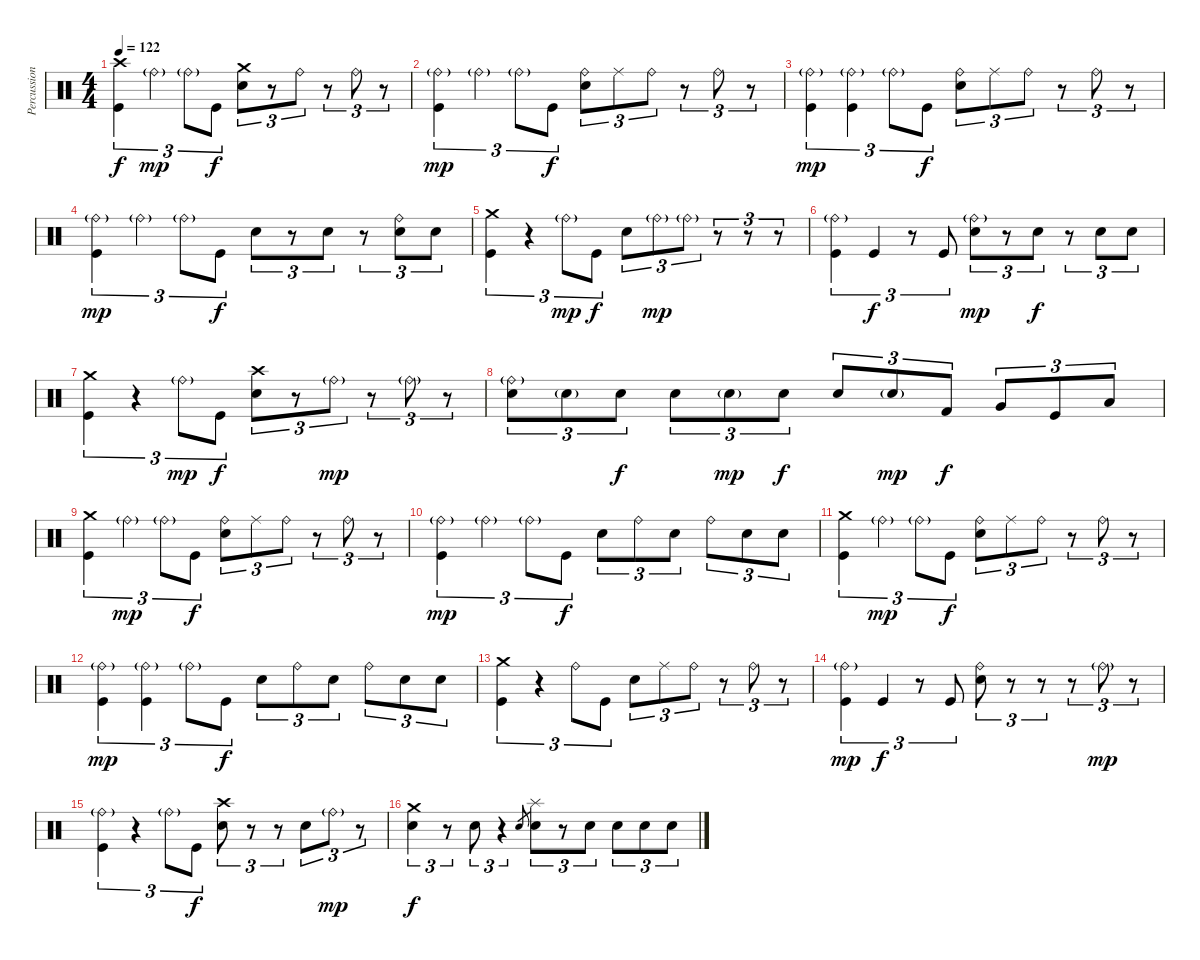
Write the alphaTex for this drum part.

\track ("Percussions" "Percussion") {instrument percussion}
\staff {score}
\articulation defaults
\ts (4 4)
\tempo 122
\clef neutral
\ks c
("Crash high (hit)" "Kick (hit)").4{tu (3 2) dy f} "Ride (bell)"{g}.4{tu (3 2) dy mp} "Ride (bell)"{g}.8{tu (3 2)} "Kick (hit)".8{tu (3 2) dy f} ("Crash medium (hit)" "Electric Snare (hit)").8{tu (3 2)} r.8{tu (3 2)} "Ride (bell)".8{tu (3 2)} r.8{tu (3 2)} "Ride (bell)".8{tu (3 2)} r.8{tu (3 2)} |
("Ride (bell)"{g} "Kick (hit)").4{tu (3 2) dy mp} "Ride (bell)"{g}.4{tu (3 2)} "Ride (bell)"{g}.8{tu (3 2)} "Kick (hit)".8{tu (3 2) dy f} ("Ride (bell)" "Electric Snare (hit)").8{tu (3 2)} "Ride (middle)".8{tu (3 2)} "Ride (bell)".8{tu (3 2)} r.8{tu (3 2)} "Ride (bell)".8{tu (3 2)} r.8{tu (3 2)} |
("Ride (bell)"{g} "Kick (hit)").4{tu (3 2) dy mp} ("Ride (bell)"{g} "Kick (hit)").4{tu (3 2)} "Ride (bell)"{g}.8{tu (3 2)} "Kick (hit)".8{tu (3 2) dy f} ("Ride (bell)" "Electric Snare (hit)").8{tu (3 2)} "Ride (middle)".8{tu (3 2)} "Ride (bell)".8{tu (3 2)} r.8{tu (3 2)} "Ride (bell)".8{tu (3 2)} r.8{tu (3 2)} |
("Ride (bell)"{g} "Kick (hit)").4{tu (3 2) dy mp} "Ride (bell)"{g}.4{tu (3 2)} "Ride (bell)"{g}.8{tu (3 2)} "Kick (hit)".8{tu (3 2) dy f} "Electric Snare (hit)".8{tu (3 2)} r.8{tu (3 2)} "Electric Snare (hit)".8{tu (3 2)} r.8{tu (3 2)} ("Ride (bell)" "Electric Snare (hit)").8{tu (3 2)} "Electric Snare (hit)".8{tu (3 2)} |
("Crash medium (hit)" "Kick (hit)").4{tu (3 2)} r.4{tu (3 2)} "Ride (bell)"{g}.8{tu (3 2) dy mp} "Kick (hit)".8{tu (3 2) dy f} "Electric Snare (hit)".8{tu (3 2)} "Ride (bell)"{g}.8{tu (3 2) dy mp} "Ride (bell)"{g}.8{tu (3 2)} r.8{tu (3 2)} r.8{tu (3 2)} r.8{tu (3 2)} |
("Ride (bell)"{g} "Kick (hit)").4{tu (3 2)} "Kick (hit)".4{tu (3 2) dy f} r.8{tu (3 2)} "Kick (hit)".8{tu (3 2)} ("Ride (bell)"{g} "Electric Snare (hit)").8{tu (3 2) dy mp} r.8{tu (3 2)} "Electric Snare (hit)".8{tu (3 2) dy f} r.8{tu (3 2)} "Electric Snare (hit)".8{tu (3 2)} "Electric Snare (hit)".8{tu (3 2)} |
("Crash medium (hit)" "Kick (hit)").4{tu (3 2)} r.4{tu (3 2)} "Ride (bell)"{g}.8{tu (3 2) dy mp} "Kick (hit)".8{tu (3 2) dy f} ("Crash high (hit)" "Electric Snare (hit)").8{tu (3 2)} r.8{tu (3 2)} "Ride (bell)"{g}.8{tu (3 2) dy mp} r.8{tu (3 2)} "Ride (bell)"{g}.8{tu (3 2)} r.8{tu (3 2)} |
("Ride (bell)"{g} "Electric Snare (hit)").8{tu (3 2)} "Electric Snare (hit)"{g}.8{tu (3 2)} "Electric Snare (hit)".8{tu (3 2) dy f} "Electric Snare (hit)".8{tu (3 2)} "Electric Snare (hit)"{g}.8{tu (3 2) dy mp} "Electric Snare (hit)".8{tu (3 2) dy f} "Electric Snare (hit)".8{tu (3 2)} "Electric Snare (hit)"{g}.8{tu (3 2) dy mp} "Kick (hit) 2".8{tu (3 2) dy f} "Very Low Tom (hit)".8{tu (3 2)} "Kick (hit)".8{tu (3 2)} "Low Tom (hit)".8{tu (3 2)} |
("Crash medium (hit)" "Kick (hit)").4{tu (3 2)} "Ride (bell)"{g}.4{tu (3 2) dy mp} "Ride (bell)"{g}.8{tu (3 2)} "Kick (hit)".8{tu (3 2) dy f} ("Ride (bell)" "Electric Snare (hit)").8{tu (3 2)} "Ride (middle)".8{tu (3 2)} "Ride (bell)".8{tu (3 2)} r.8{tu (3 2)} "Ride (bell)".8{tu (3 2)} r.8{tu (3 2)} |
("Ride (bell)"{g} "Kick (hit)").4{tu (3 2) dy mp} "Ride (bell)"{g}.4{tu (3 2)} "Ride (bell)"{g}.8{tu (3 2)} "Kick (hit)".8{tu (3 2) dy f} "Electric Snare (hit)".8{tu (3 2)} "Ride (bell)".8{tu (3 2)} "Electric Snare (hit)".8{tu (3 2)} "Ride (bell)".8{tu (3 2)} "Electric Snare (hit)".8{tu (3 2)} "Electric Snare (hit)".8{tu (3 2)} |
("Crash medium (hit)" "Kick (hit)").4{tu (3 2)} "Ride (bell)"{g}.4{tu (3 2) dy mp} "Ride (bell)"{g}.8{tu (3 2)} "Kick (hit)".8{tu (3 2) dy f} ("Ride (bell)" "Electric Snare (hit)").8{tu (3 2)} "Ride (middle)".8{tu (3 2)} "Ride (bell)".8{tu (3 2)} r.8{tu (3 2)} "Ride (bell)".8{tu (3 2)} r.8{tu (3 2)} |
("Ride (bell)"{g} "Kick (hit)").4{tu (3 2) dy mp} ("Ride (bell)"{g} "Kick (hit)").4{tu (3 2)} "Ride (bell)"{g}.8{tu (3 2)} "Kick (hit)".8{tu (3 2) dy f} "Electric Snare (hit)".8{tu (3 2)} "Ride (bell)".8{tu (3 2)} "Electric Snare (hit)".8{tu (3 2)} "Ride (bell)".8{tu (3 2)} "Electric Snare (hit)".8{tu (3 2)} "Electric Snare (hit)".8{tu (3 2)} |
("Crash medium (hit)" "Kick (hit)").4{tu (3 2)} r.4{tu (3 2)} "Ride (bell)".8{tu (3 2)} "Kick (hit)".8{tu (3 2)} "Electric Snare (hit)".8{tu (3 2)} "Ride (middle)".8{tu (3 2)} "Ride (bell)".8{tu (3 2)} r.8{tu (3 2)} "Ride (bell)".8{tu (3 2)} r.8{tu (3 2)} |
("Ride (bell)"{g} "Kick (hit)").4{tu (3 2) dy mp} "Kick (hit)".4{tu (3 2) dy f} r.8{tu (3 2)} "Kick (hit)".8{tu (3 2)} ("Ride (bell)" "Electric Snare (hit)").8{tu (3 2)} r.8{tu (3 2)} r.8{tu (3 2)} r.8{tu (3 2)} "Ride (bell)"{g}.8{tu (3 2) dy mp} r.8{tu (3 2)} |
("Ride (bell)"{g} "Kick (hit)").4{tu (3 2)} r.4{tu (3 2)} "Ride (bell)"{g}.8{tu (3 2)} "Kick (hit)".8{tu (3 2) dy f} ("Crash high (hit)" "Electric Snare (hit)").8{tu (3 2)} r.8{tu (3 2)} r.8{tu (3 2)} "Electric Snare (hit)".8{tu (3 2)} "Ride (bell)"{g}.8{tu (3 2) dy mp} r.8{tu (3 2)} |
("Crash medium (hit)" "Electric Snare (hit)").4{tu (3 2) dy f} r.8{tu (3 2)} "Electric Snare (hit)".8{tu (3 2)} r.4{tu (3 2)} "Electric Snare (hit)".8{gr} ("Splash (hit)" "Electric Snare (hit)").8{tu (3 2)} r.8{tu (3 2)} "Electric Snare (hit)".8{tu (3 2)} "Electric Snare (hit)".8{tu (3 2)} "Electric Snare (hit)".8{tu (3 2)} "Electric Snare (hit)".8{tu (3 2)}
